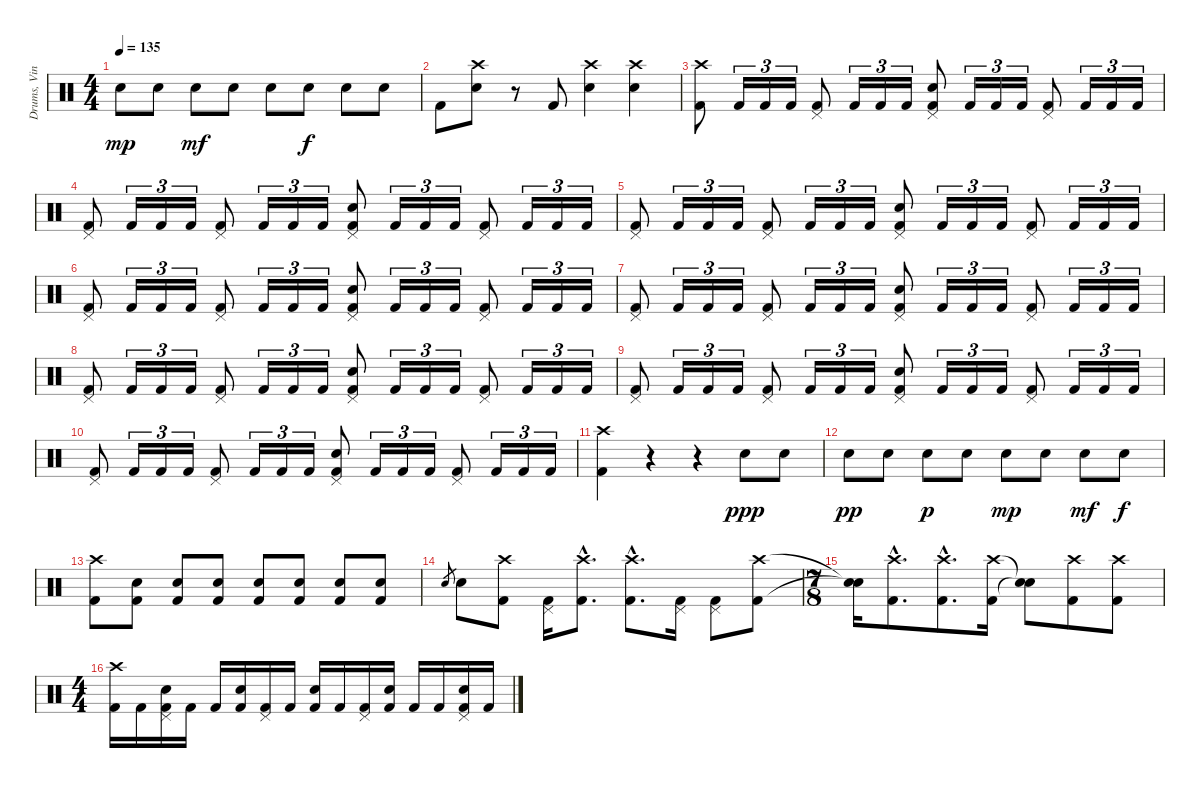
\track ("Drums, Vinnie" "Drums, Vin") {instrument percussion}
\staff {score}
\articulation defaults
\ts (4 4)
\tempo 135
\clef neutral
\ks c "Electric Snare (hit)".8{dy mp} "Electric Snare (hit)".8 "Electric Snare (hit)".8{dy mf} "Electric Snare (hit)".8 "Electric Snare (hit)".8 "Electric Snare (hit)".8{dy f} "Electric Snare (hit)".8 "Electric Snare (hit)".8
|
"Kick (hit) 2".8 ("Crash high (hit)" "Electric Snare (hit)").8 r.8 "Kick (hit) 2".8 ("Crash high (hit)" "Electric Snare (hit)").4 ("Crash high (hit)" "Electric Snare (hit)").4 |
("Crash high (hit)" "Kick (hit) 2").8 "Kick (hit) 2".16{tu (3 2)} "Kick (hit) 2".16{tu (3 2)} "Kick (hit) 2".16{tu (3 2)} ("Pedal Hi-Hat (hit)" "Kick (hit) 2").8 "Kick (hit) 2".16{tu (3 2)} "Kick (hit) 2".16{tu (3 2)} "Kick (hit) 2".16{tu (3 2)} ("Pedal Hi-Hat (hit)" "Electric Snare (hit)" "Kick (hit) 2").8 "Kick (hit) 2".16{tu (3 2)} "Kick (hit) 2".16{tu (3 2)} "Kick (hit) 2".16{tu (3 2)} ("Pedal Hi-Hat (hit)" "Kick (hit) 2").8 "Kick (hit) 2".16{tu (3 2)} "Kick (hit) 2".16{tu (3 2)} "Kick (hit) 2".16{tu (3 2)} |
("Pedal Hi-Hat (hit)" "Kick (hit) 2").8 "Kick (hit) 2".16{tu (3 2)} "Kick (hit) 2".16{tu (3 2)} "Kick (hit) 2".16{tu (3 2)} ("Pedal Hi-Hat (hit)" "Kick (hit) 2").8 "Kick (hit) 2".16{tu (3 2)} "Kick (hit) 2".16{tu (3 2)} "Kick (hit) 2".16{tu (3 2)} ("Pedal Hi-Hat (hit)" "Electric Snare (hit)" "Kick (hit) 2").8 "Kick (hit) 2".16{tu (3 2)} "Kick (hit) 2".16{tu (3 2)} "Kick (hit) 2".16{tu (3 2)} ("Pedal Hi-Hat (hit)" "Kick (hit) 2").8 "Kick (hit) 2".16{tu (3 2)} "Kick (hit) 2".16{tu (3 2)} "Kick (hit) 2".16{tu (3 2)} |
("Pedal Hi-Hat (hit)" "Kick (hit) 2").8 "Kick (hit) 2".16{tu (3 2)} "Kick (hit) 2".16{tu (3 2)} "Kick (hit) 2".16{tu (3 2)} ("Pedal Hi-Hat (hit)" "Kick (hit) 2").8 "Kick (hit) 2".16{tu (3 2)} "Kick (hit) 2".16{tu (3 2)} "Kick (hit) 2".16{tu (3 2)} ("Pedal Hi-Hat (hit)" "Electric Snare (hit)" "Kick (hit) 2").8 "Kick (hit) 2".16{tu (3 2)} "Kick (hit) 2".16{tu (3 2)} "Kick (hit) 2".16{tu (3 2)} ("Pedal Hi-Hat (hit)" "Kick (hit) 2").8 "Kick (hit) 2".16{tu (3 2)} "Kick (hit) 2".16{tu (3 2)} "Kick (hit) 2".16{tu (3 2)} |
("Pedal Hi-Hat (hit)" "Kick (hit) 2").8 "Kick (hit) 2".16{tu (3 2)} "Kick (hit) 2".16{tu (3 2)} "Kick (hit) 2".16{tu (3 2)} ("Pedal Hi-Hat (hit)" "Kick (hit) 2").8 "Kick (hit) 2".16{tu (3 2)} "Kick (hit) 2".16{tu (3 2)} "Kick (hit) 2".16{tu (3 2)} ("Pedal Hi-Hat (hit)" "Electric Snare (hit)" "Kick (hit) 2").8 "Kick (hit) 2".16{tu (3 2)} "Kick (hit) 2".16{tu (3 2)} "Kick (hit) 2".16{tu (3 2)} ("Pedal Hi-Hat (hit)" "Kick (hit) 2").8 "Kick (hit) 2".16{tu (3 2)} "Kick (hit) 2".16{tu (3 2)} "Kick (hit) 2".16{tu (3 2)} |
("Pedal Hi-Hat (hit)" "Kick (hit) 2").8 "Kick (hit) 2".16{tu (3 2)} "Kick (hit) 2".16{tu (3 2)} "Kick (hit) 2".16{tu (3 2)} ("Pedal Hi-Hat (hit)" "Kick (hit) 2").8 "Kick (hit) 2".16{tu (3 2)} "Kick (hit) 2".16{tu (3 2)} "Kick (hit) 2".16{tu (3 2)} ("Pedal Hi-Hat (hit)" "Electric Snare (hit)" "Kick (hit) 2").8 "Kick (hit) 2".16{tu (3 2)} "Kick (hit) 2".16{tu (3 2)} "Kick (hit) 2".16{tu (3 2)} ("Pedal Hi-Hat (hit)" "Kick (hit) 2").8 "Kick (hit) 2".16{tu (3 2)} "Kick (hit) 2".16{tu (3 2)} "Kick (hit) 2".16{tu (3 2)} |
("Pedal Hi-Hat (hit)" "Kick (hit) 2").8 "Kick (hit) 2".16{tu (3 2)} "Kick (hit) 2".16{tu (3 2)} "Kick (hit) 2".16{tu (3 2)} ("Pedal Hi-Hat (hit)" "Kick (hit) 2").8 "Kick (hit) 2".16{tu (3 2)} "Kick (hit) 2".16{tu (3 2)} "Kick (hit) 2".16{tu (3 2)} ("Pedal Hi-Hat (hit)" "Electric Snare (hit)" "Kick (hit) 2").8 "Kick (hit) 2".16{tu (3 2)} "Kick (hit) 2".16{tu (3 2)} "Kick (hit) 2".16{tu (3 2)} ("Pedal Hi-Hat (hit)" "Kick (hit) 2").8 "Kick (hit) 2".16{tu (3 2)} "Kick (hit) 2".16{tu (3 2)} "Kick (hit) 2".16{tu (3 2)} |
("Pedal Hi-Hat (hit)" "Kick (hit) 2").8 "Kick (hit) 2".16{tu (3 2)} "Kick (hit) 2".16{tu (3 2)} "Kick (hit) 2".16{tu (3 2)} ("Pedal Hi-Hat (hit)" "Kick (hit) 2").8 "Kick (hit) 2".16{tu (3 2)} "Kick (hit) 2".16{tu (3 2)} "Kick (hit) 2".16{tu (3 2)} ("Pedal Hi-Hat (hit)" "Electric Snare (hit)" "Kick (hit) 2").8 "Kick (hit) 2".16{tu (3 2)} "Kick (hit) 2".16{tu (3 2)} "Kick (hit) 2".16{tu (3 2)} ("Pedal Hi-Hat (hit)" "Kick (hit) 2").8 "Kick (hit) 2".16{tu (3 2)} "Kick (hit) 2".16{tu (3 2)} "Kick (hit) 2".16{tu (3 2)} |
("Pedal Hi-Hat (hit)" "Kick (hit) 2").8 "Kick (hit) 2".16{tu (3 2)} "Kick (hit) 2".16{tu (3 2)} "Kick (hit) 2".16{tu (3 2)} ("Pedal Hi-Hat (hit)" "Kick (hit) 2").8 "Kick (hit) 2".16{tu (3 2)} "Kick (hit) 2".16{tu (3 2)} "Kick (hit) 2".16{tu (3 2)} ("Pedal Hi-Hat (hit)" "Electric Snare (hit)" "Kick (hit) 2").8 "Kick (hit) 2".16{tu (3 2)} "Kick (hit) 2".16{tu (3 2)} "Kick (hit) 2".16{tu (3 2)} ("Pedal Hi-Hat (hit)" "Kick (hit) 2").8 "Kick (hit) 2".16{tu (3 2)} "Kick (hit) 2".16{tu (3 2)} "Kick (hit) 2".16{tu (3 2)} |
("Crash high (hit)" "Kick (hit) 2").4 r.4 r.4 "Electric Snare (hit)".8{dy ppp} "Electric Snare (hit)".8 |
"Electric Snare (hit)".8{dy pp} "Electric Snare (hit)".8 "Electric Snare (hit)".8{dy p} "Electric Snare (hit)".8 "Electric Snare (hit)".8{dy mp} "Electric Snare (hit)".8 "Electric Snare (hit)".8{dy mf} "Electric Snare (hit)".8{dy f} |
("Crash high (hit)" "Kick (hit) 2").8 ("Electric Snare (hit)" "Kick (hit) 2").8 ("Electric Snare (hit)" "Kick (hit) 2").8 ("Electric Snare (hit)" "Kick (hit) 2").8 ("Electric Snare (hit)" "Kick (hit) 2").8 ("Electric Snare (hit)" "Kick (hit) 2").8 ("Electric Snare (hit)" "Kick (hit) 2").8 ("Electric Snare (hit)" "Kick (hit) 2").8 |
"Electric Snare (hit)".8{gr} "Electric Snare (hit)".8 ("Crash high (hit)" "Kick (hit) 2").8 ("Pedal Hi-Hat (hit)" "Kick (hit) 2").16 ("Crash high (hit)"{hac} "Kick (hit) 2"{hac}).8{d} ("Crash high (hit)"{hac} "Kick (hit) 2"{hac}).8{d} ("Pedal Hi-Hat (hit)" "Kick (hit) 2").16 ("Pedal Hi-Hat (hit)" "Kick (hit) 2").8 ("Crash high (hit)" "Kick (hit) 2").8 |
\ts (7 8)
("Snare (hit)"{t} "Snare (hit)"{t}).16 ("Crash high (hit)"{hac} "Kick (hit) 2"{hac}).8{d} ("Crash high (hit)"{hac} "Kick (hit) 2"{hac}).8{d} ("Crash high (hit)" "Kick (hit) 2").16 ("Snare (hit)"{t} "Snare (hit)"{t}).8 ("Crash high (hit)" "Kick (hit) 2").8 ("Crash high (hit)" "Kick (hit) 2").8 |
\ts (4 4)
("Crash high (hit)" "Kick (hit) 2").16 "Kick (hit) 2".16 ("Pedal Hi-Hat (hit)" "Electric Snare (hit)" "Kick (hit) 2").16 "Kick (hit) 2".16 "Kick (hit) 2".16 ("Electric Snare (hit)" "Kick (hit) 2").16 ("Pedal Hi-Hat (hit)" "Kick (hit) 2").16 "Kick (hit) 2".16 ("Electric Snare (hit)" "Kick (hit) 2").16 "Kick (hit) 2".16 ("Pedal Hi-Hat (hit)" "Kick (hit) 2").16 ("Electric Snare (hit)" "Kick (hit) 2").16 "Kick (hit) 2".16 "Kick (hit) 2".16 ("Pedal Hi-Hat (hit)" "Electric Snare (hit)" "Kick (hit) 2").16 "Kick (hit) 2".16
